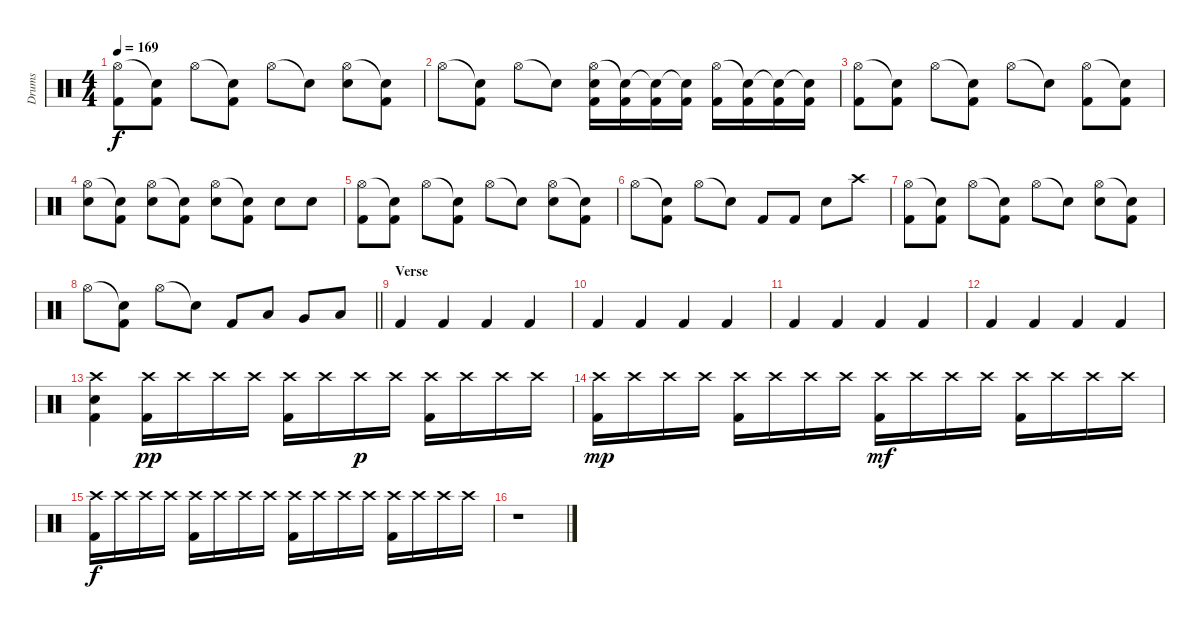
\track ("Drums" "Drums") {instrument percussion}
\staff {score}
\articulation defaults
\ts (4 4)
\tempo 169
\clef neutral
\ks c
("Hi-Hat (open)" "Kick (hit) 2").8{dy f} ("Snare (hit)"{t} "Kick (hit) 2").8 "Hi-Hat (open)".8 ("Snare (hit)"{t} "Kick (hit) 2").8 "Hi-Hat (open)".8 "Snare (hit)"{t}.8 ("Hi-Hat (open)" "Electric Snare (hit)").8 ("Snare (hit)"{t} "Kick (hit) 2").8 |
"Hi-Hat (open)".8 ("Snare (hit)"{t} "Kick (hit) 2").8 "Hi-Hat (open)".8 "Snare (hit)"{t}.8 ("Hi-Hat (open)" "Electric Snare (hit)" "Kick (hit) 2").16 ("Snare (hit)"{t} "Kick (hit) 2").16 ("Snare (hit)"{t} "Kick (hit) 2").16 ("Snare (hit)"{t} "Kick (hit) 2").16 ("Hi-Hat (open)" "Kick (hit) 2").16 ("Snare (hit)"{t} "Kick (hit) 2").16 ("Snare (hit)"{t} "Kick (hit) 2").16 ("Snare (hit)"{t} "Kick (hit) 2").16 |
("Hi-Hat (open)" "Kick (hit) 2").8 ("Snare (hit)"{t} "Kick (hit) 2").8 "Hi-Hat (open)".8 ("Snare (hit)"{t} "Kick (hit) 2").8 "Hi-Hat (open)".8 "Snare (hit)"{t}.8 ("Hi-Hat (open)" "Kick (hit) 2").8 ("Snare (hit)"{t} "Kick (hit) 2").8 |
("Hi-Hat (open)" "Electric Snare (hit)").8 ("Snare (hit)"{t} "Kick (hit) 2").8 ("Hi-Hat (open)" "Electric Snare (hit)").8 ("Snare (hit)"{t} "Kick (hit) 2").8 ("Hi-Hat (open)" "Electric Snare (hit)").8 ("Snare (hit)"{t} "Kick (hit) 2").8 "Electric Snare (hit)".8 "Electric Snare (hit)".8 |
("Hi-Hat (open)" "Kick (hit) 2").8 ("Snare (hit)"{t} "Kick (hit) 2").8 "Hi-Hat (open)".8 ("Snare (hit)"{t} "Kick (hit) 2").8 "Hi-Hat (open)".8 "Snare (hit)"{t}.8 ("Hi-Hat (open)" "Electric Snare (hit)").8 ("Snare (hit)"{t} "Kick (hit) 2").8 |
"Hi-Hat (open)".8 ("Snare (hit)"{t} "Kick (hit) 2").8 "Hi-Hat (open)".8 "Snare (hit)"{t}.8 "Kick (hit) 2".8 "Kick (hit) 2".8 "Electric Snare (hit)".8 "Crash high (hit)".8 |
("Hi-Hat (open)" "Kick (hit) 2").8 ("Snare (hit)"{t} "Kick (hit) 2").8 "Hi-Hat (open)".8 ("Snare (hit)"{t} "Kick (hit) 2").8 "Hi-Hat (open)".8 "Snare (hit)"{t}.8 ("Hi-Hat (open)" "Electric Snare (hit)").8 ("Snare (hit)"{t} "Kick (hit) 2").8 |
\barLineRight lightlight "Hi-Hat (open)".8
("Snare (hit)"{t} "Kick (hit) 2").8 "Hi-Hat (open)".8 "Snare (hit)"{t}.8 "Kick (hit) 2".8 "Low Tom (hit)".8 "Very Low Tom (hit)".8 "Low Floor Tom (hit)".8 |
\section ("" "Verse")
"Kick (hit) 2".4 "Kick (hit) 2".4 "Kick (hit) 2".4 "Kick (hit) 2".4 |
"Kick (hit) 2".4 "Kick (hit) 2".4 "Kick (hit) 2".4 "Kick (hit) 2".4 |
"Kick (hit) 2".4 "Kick (hit) 2".4 "Kick (hit) 2".4 "Kick (hit) 2".4 |
"Kick (hit) 2".4 "Kick (hit) 2".4 "Kick (hit) 2".4 "Kick (hit) 2".4 |
("Crash high (hit)" "Electric Snare (hit)" "Kick (hit) 2").4 ("Crash high (hit)" "Kick (hit) 2").16{dy pp} "Crash high (hit)".16 "Crash high (hit)".16 "Crash high (hit)".16 ("Crash high (hit)" "Kick (hit) 2").16 "Crash high (hit)".16 "Crash high (hit)".16{dy p} "Crash high (hit)".16 ("Crash high (hit)" "Kick (hit) 2").16 "Crash high (hit)".16 "Crash high (hit)".16 "Crash high (hit)".16 |
("Crash high (hit)" "Kick (hit) 2").16{dy mp} "Crash high (hit)".16 "Crash high (hit)".16 "Crash high (hit)".16 ("Crash high (hit)" "Kick (hit) 2").16 "Crash high (hit)".16 "Crash high (hit)".16 "Crash high (hit)".16 ("Crash high (hit)" "Kick (hit) 2").16{dy mf} "Crash high (hit)".16 "Crash high (hit)".16 "Crash high (hit)".16 ("Crash high (hit)" "Kick (hit) 2").16 "Crash high (hit)".16 "Crash high (hit)".16 "Crash high (hit)".16 |
("Crash high (hit)" "Kick (hit) 2").16{dy f} "Crash high (hit)".16 "Crash high (hit)".16 "Crash high (hit)".16 ("Crash high (hit)" "Kick (hit) 2").16 "Crash high (hit)".16 "Crash high (hit)".16 "Crash high (hit)".16 ("Crash high (hit)" "Kick (hit) 2").16 "Crash high (hit)".16 "Crash high (hit)".16 "Crash high (hit)".16 ("Crash high (hit)" "Kick (hit) 2").16 "Crash high (hit)".16 "Crash high (hit)".16 "Crash high (hit)".16 |
r.1
